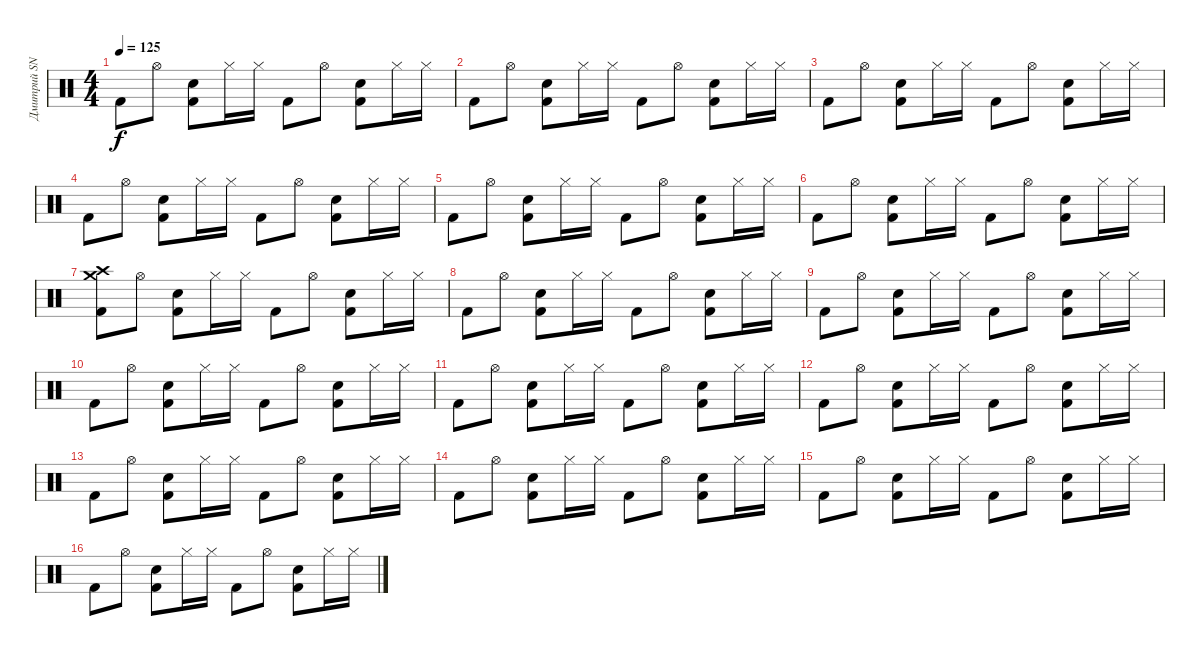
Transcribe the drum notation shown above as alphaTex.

\track ("Дмитрий SNAKE Хакимов" "Дмитрий SN") {instrument percussion}
\staff {score}
\articulation defaults
\ts (4 4)
\tempo 125
\clef neutral
\ks c "Kick (hit) 2".8{dy f} "Hi-Hat (open)".8
("Snare (hit) 2" "Kick (hit) 2").8 "Hi-Hat (closed)".16 "Hi-Hat (closed)".16 "Kick (hit) 2".8 "Hi-Hat (open)".8 ("Snare (hit) 2" "Kick (hit) 2").8 "Hi-Hat (closed)".16 "Hi-Hat (closed)".16 |
"Kick (hit) 2".8 "Hi-Hat (open)".8 ("Snare (hit) 2" "Kick (hit) 2").8 "Hi-Hat (closed)".16 "Hi-Hat (closed)".16 "Kick (hit) 2".8 "Hi-Hat (open)".8 ("Snare (hit) 2" "Kick (hit) 2").8 "Hi-Hat (closed)".16 "Hi-Hat (closed)".16 |
"Kick (hit) 2".8 "Hi-Hat (open)".8 ("Snare (hit) 2" "Kick (hit) 2").8 "Hi-Hat (closed)".16 "Hi-Hat (closed)".16 "Kick (hit) 2".8 "Hi-Hat (open)".8 ("Snare (hit) 2" "Kick (hit) 2").8 "Hi-Hat (closed)".16 "Hi-Hat (closed)".16 |
"Kick (hit) 2".8 "Hi-Hat (open)".8 ("Snare (hit) 2" "Kick (hit) 2").8 "Hi-Hat (closed)".16 "Hi-Hat (closed)".16 "Kick (hit) 2".8 "Hi-Hat (open)".8 ("Snare (hit) 2" "Kick (hit) 2").8 "Hi-Hat (closed)".16 "Hi-Hat (closed)".16 |
"Kick (hit) 2".8 "Hi-Hat (open)".8 ("Snare (hit) 2" "Kick (hit) 2").8 "Hi-Hat (closed)".16 "Hi-Hat (closed)".16 "Kick (hit) 2".8 "Hi-Hat (open)".8 ("Snare (hit) 2" "Kick (hit) 2").8 "Hi-Hat (closed)".16 "Hi-Hat (closed)".16 |
"Kick (hit) 2".8 "Hi-Hat (open)".8 ("Snare (hit) 2" "Kick (hit) 2").8 "Hi-Hat (closed)".16 "Hi-Hat (closed)".16 "Kick (hit) 2".8 "Hi-Hat (open)".8 ("Snare (hit) 2" "Kick (hit) 2").8 "Hi-Hat (closed)".16 "Hi-Hat (closed)".16 |
("Crash high (hit)" "Crash medium (hit)" "Kick (hit) 2").8 "Hi-Hat (open)".8 ("Snare (hit) 2" "Kick (hit) 2").8 "Hi-Hat (closed)".16 "Hi-Hat (closed)".16 "Kick (hit) 2".8 "Hi-Hat (open)".8 ("Snare (hit) 2" "Kick (hit) 2").8 "Hi-Hat (closed)".16 "Hi-Hat (closed)".16 |
"Kick (hit) 2".8 "Hi-Hat (open)".8 ("Snare (hit) 2" "Kick (hit) 2").8 "Hi-Hat (closed)".16 "Hi-Hat (closed)".16 "Kick (hit) 2".8 "Hi-Hat (open)".8 ("Snare (hit) 2" "Kick (hit) 2").8 "Hi-Hat (closed)".16 "Hi-Hat (closed)".16 |
"Kick (hit) 2".8 "Hi-Hat (open)".8 ("Snare (hit) 2" "Kick (hit) 2").8 "Hi-Hat (closed)".16 "Hi-Hat (closed)".16 "Kick (hit) 2".8 "Hi-Hat (open)".8 ("Snare (hit) 2" "Kick (hit) 2").8 "Hi-Hat (closed)".16 "Hi-Hat (closed)".16 |
"Kick (hit) 2".8 "Hi-Hat (open)".8 ("Snare (hit) 2" "Kick (hit) 2").8 "Hi-Hat (closed)".16 "Hi-Hat (closed)".16 "Kick (hit) 2".8 "Hi-Hat (open)".8 ("Snare (hit) 2" "Kick (hit) 2").8 "Hi-Hat (closed)".16 "Hi-Hat (closed)".16 |
"Kick (hit) 2".8 "Hi-Hat (open)".8 ("Snare (hit) 2" "Kick (hit) 2").8 "Hi-Hat (closed)".16 "Hi-Hat (closed)".16 "Kick (hit) 2".8 "Hi-Hat (open)".8 ("Snare (hit) 2" "Kick (hit) 2").8 "Hi-Hat (closed)".16 "Hi-Hat (closed)".16 |
"Kick (hit) 2".8 "Hi-Hat (open)".8 ("Snare (hit) 2" "Kick (hit) 2").8 "Hi-Hat (closed)".16 "Hi-Hat (closed)".16 "Kick (hit) 2".8 "Hi-Hat (open)".8 ("Snare (hit) 2" "Kick (hit) 2").8 "Hi-Hat (closed)".16 "Hi-Hat (closed)".16 |
"Kick (hit) 2".8 "Hi-Hat (open)".8 ("Snare (hit) 2" "Kick (hit) 2").8 "Hi-Hat (closed)".16 "Hi-Hat (closed)".16 "Kick (hit) 2".8 "Hi-Hat (open)".8 ("Snare (hit) 2" "Kick (hit) 2").8 "Hi-Hat (closed)".16 "Hi-Hat (closed)".16 |
"Kick (hit) 2".8 "Hi-Hat (open)".8 ("Snare (hit) 2" "Kick (hit) 2").8 "Hi-Hat (closed)".16 "Hi-Hat (closed)".16 "Kick (hit) 2".8 "Hi-Hat (open)".8 ("Snare (hit) 2" "Kick (hit) 2").8 "Hi-Hat (closed)".16 "Hi-Hat (closed)".16 |
"Kick (hit) 2".8 "Hi-Hat (open)".8 ("Snare (hit) 2" "Kick (hit) 2").8 "Hi-Hat (closed)".16 "Hi-Hat (closed)".16 "Kick (hit) 2".8 "Hi-Hat (open)".8 ("Snare (hit) 2" "Kick (hit) 2").8 "Hi-Hat (closed)".16 "Hi-Hat (closed)".16 |
"Kick (hit) 2".8 "Hi-Hat (open)".8 ("Snare (hit) 2" "Kick (hit) 2").8 "Hi-Hat (closed)".16 "Hi-Hat (closed)".16 "Kick (hit) 2".8 "Hi-Hat (open)".8 ("Snare (hit) 2" "Kick (hit) 2").8 "Hi-Hat (closed)".16 "Hi-Hat (closed)".16
